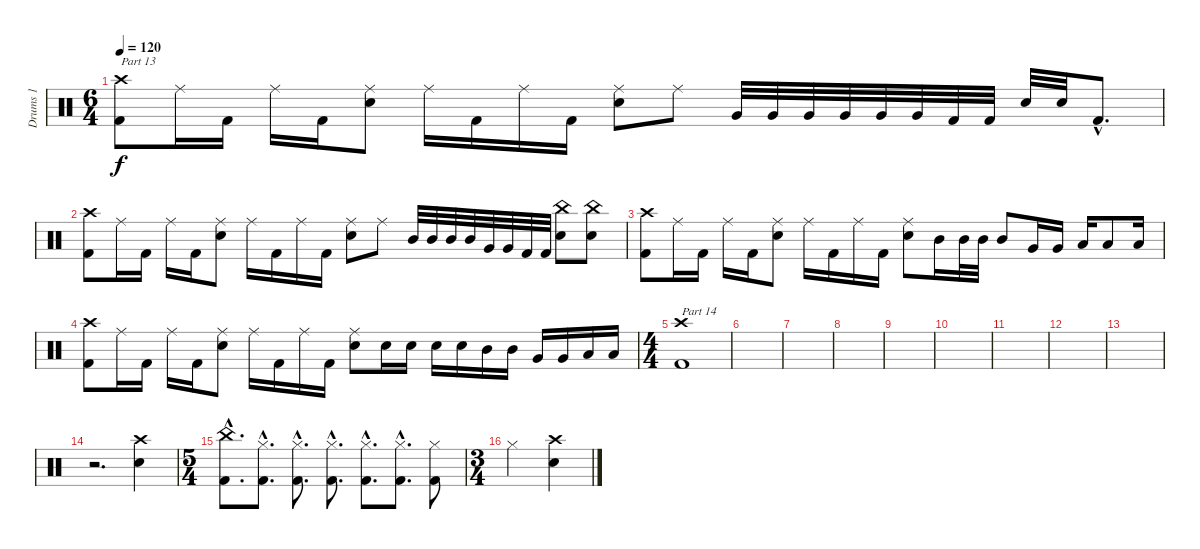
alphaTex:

\track ("Drums 1" "Drums 1") {instrument percussion}
\staff {score}
\articulation defaults
\ts (6 4)
\tempo 120
\clef neutral
\ks c
("Crash high (hit)" "Kick (hit) 2").8{txt "Part 13" dy f} "Ride (middle)".16 "Kick (hit) 2".16 "Ride (middle)".16 "Kick (hit) 2".16 ("Ride (middle)" "Snare (hit) 2").8 "Ride (middle)".16 "Kick (hit) 2".16 "Ride (middle)".16 "Kick (hit) 2".16 ("Ride (middle)" "Snare (hit) 2").8 "Ride (middle)".8 "Very Low Tom (hit)".32 "Very Low Tom (hit)".32 "Very Low Tom (hit)".32 "Very Low Tom (hit)".32 "Very Low Tom (hit)".32 "Very Low Tom (hit)".32 "Kick (hit) 2".32 "Kick (hit) 2".32 "Snare (hit) 2".32 "Snare (hit) 2".32 "Kick (hit) 2"{hac}.8{d} |
("Crash high (hit)" "Kick (hit) 2").8 "Ride (middle)".16 "Kick (hit) 2".16 "Ride (middle)".16 "Kick (hit) 2".16 ("Ride (middle)" "Snare (hit) 2").8 "Ride (middle)".16 "Kick (hit) 2".16 "Ride (middle)".16 "Kick (hit) 2".16 ("Ride (middle)" "Snare (hit) 2").8 "Ride (middle)".8 "Mid Tom (hit)".32 "Mid Tom (hit)".32 "Mid Tom (hit)".32 "Mid Tom (hit)".32 "Very Low Tom (hit)".32 "Very Low Tom (hit)".32 "Kick (hit) 2".32 "Kick (hit) 2".32 ("China (hit)" "Snare (hit) 2").8 ("China (hit)" "Snare (hit) 2").8 |
("Crash high (hit)" "Kick (hit) 2").8 "Ride (middle)".16 "Kick (hit) 2".16 "Ride (middle)".16 "Kick (hit) 2".16 ("Ride (middle)" "Snare (hit) 2").8 "Ride (middle)".16 "Kick (hit) 2".16 "Ride (middle)".16 "Kick (hit) 2".16 ("Ride (middle)" "Snare (hit) 2").8 "Mid Tom (hit)".16 "Mid Tom (hit)".32 "Mid Tom (hit)".32 "Mid Tom (hit)".8 "Very Low Tom (hit)".16 "Very Low Tom (hit)".16 "Low Floor Tom (hit)".16 "Low Floor Tom (hit)".8 "Low Floor Tom (hit)".16 |
("Crash high (hit)" "Kick (hit) 2").8 "Ride (middle)".16 "Kick (hit) 2".16 "Ride (middle)".16 "Kick (hit) 2".16 ("Ride (middle)" "Snare (hit) 2").8 "Ride (middle)".16 "Kick (hit) 2".16 "Ride (middle)".16 "Kick (hit) 2".16 ("Ride (middle)" "Snare (hit) 2").8 "Snare (hit) 2".16 "Snare (hit) 2".16 "Snare (hit) 2".16 "Snare (hit) 2".16 "Mid Tom (hit)".16 "Mid Tom (hit)".16 "Very Low Tom (hit)".16 "Very Low Tom (hit)".16 "Low Floor Tom (hit)".16 "Low Floor Tom (hit)".16 |
\ts (4 4)
("Crash high (hit)" "Kick (hit) 2").1{txt "Part 14"} |
|
|
|
|
|
|
|
|
r.2{d} ("Crash high (hit)" "Snare (hit) 2").4 |
\ts (5 4)
("China (hit)"{hac} "Kick (hit) 2"{hac}).8{d} ("Hi-Hat (closed)"{hac} "Kick (hit) 2"{hac}).8{d} ("Hi-Hat (closed)"{hac} "Kick (hit) 2"{hac}).8{d} ("Hi-Hat (closed)"{hac} "Kick (hit) 2"{hac}).8{d} ("Hi-Hat (closed)"{hac} "Kick (hit) 2"{hac}).8{d} ("Hi-Hat (closed)"{hac} "Kick (hit) 2"{hac}).8{d} ("Hi-Hat (closed)" "Kick (hit) 2").8 |
\ts (3 4)
"Hi-Hat (closed)".2 ("Crash high (hit)" "Snare (hit) 2").4
